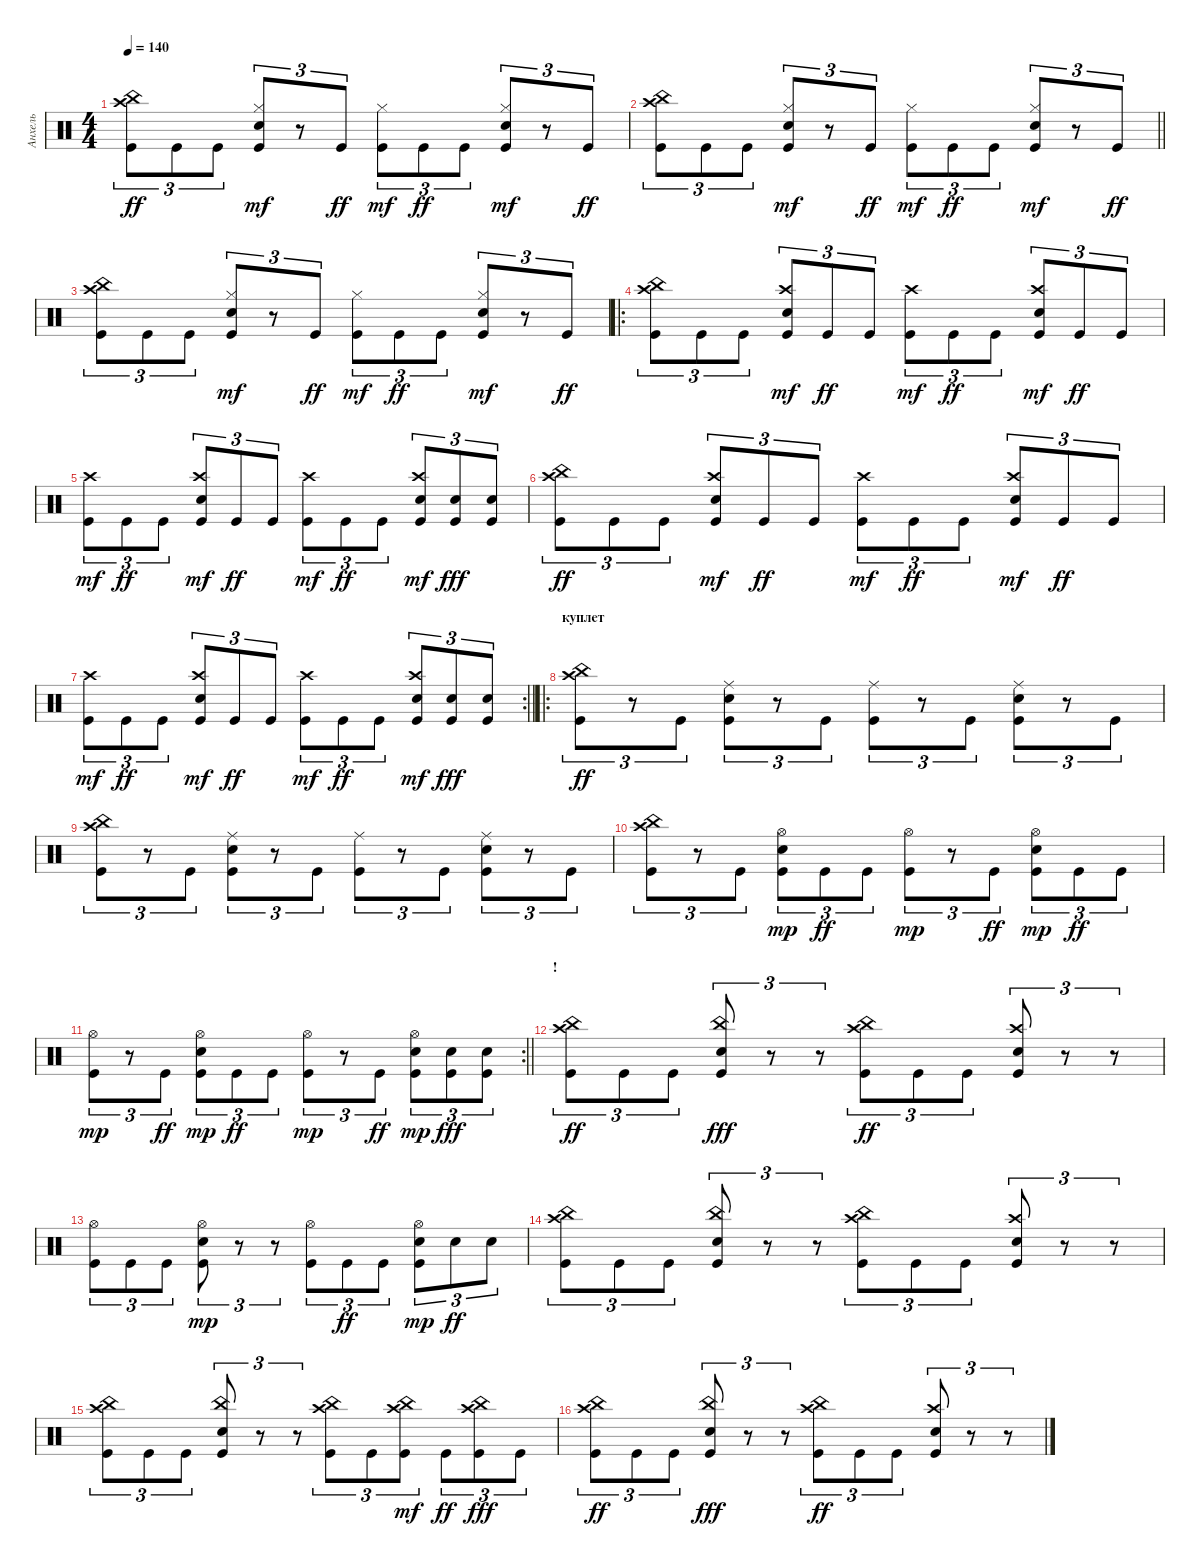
\track ("Анхель" "Анхель") {instrument percussion}
\staff {score}
\articulation defaults
\ts (4 4)
\tempo 140
\clef neutral
\ks c
("Kick (hit)" "China (hit)" "Crash high (hit)").8{tu (3 2) dy ff} "Kick (hit)".8{tu (3 2)} "Kick (hit)".8{tu (3 2)} ("Hi-Hat (closed)" "Snare (hit) 2" "Kick (hit)").8{tu (3 2) dy mf} r.8{tu (3 2)} "Kick (hit)".8{tu (3 2) dy ff} ("Kick (hit)" "Hi-Hat (closed)").8{tu (3 2) dy mf} "Kick (hit)".8{tu (3 2) dy ff} "Kick (hit)".8{tu (3 2)} ("Kick (hit)" "Snare (hit) 2" "Hi-Hat (closed)").8{tu (3 2) dy mf} r.8{tu (3 2)} "Kick (hit)".8{tu (3 2) dy ff} |
\barLineRight lightlight
("Kick (hit)" "China (hit)" "Crash high (hit)").8{tu (3 2)} "Kick (hit)".8{tu (3 2)} "Kick (hit)".8{tu (3 2)} ("Hi-Hat (closed)" "Snare (hit) 2" "Kick (hit)").8{tu (3 2) dy mf} r.8{tu (3 2)} "Kick (hit)".8{tu (3 2) dy ff} ("Kick (hit)" "Hi-Hat (closed)").8{tu (3 2) dy mf} "Kick (hit)".8{tu (3 2) dy ff} "Kick (hit)".8{tu (3 2)} ("Kick (hit)" "Snare (hit) 2" "Hi-Hat (closed)").8{tu (3 2) dy mf} r.8{tu (3 2)} "Kick (hit)".8{tu (3 2) dy ff} |
("Kick (hit)" "China (hit)" "Crash high (hit)").8{tu (3 2)} "Kick (hit)".8{tu (3 2)} "Kick (hit)".8{tu (3 2)} ("Hi-Hat (closed)" "Snare (hit) 2" "Kick (hit)").8{tu (3 2) dy mf} r.8{tu (3 2)} "Kick (hit)".8{tu (3 2) dy ff} ("Kick (hit)" "Hi-Hat (closed)").8{tu (3 2) dy mf} "Kick (hit)".8{tu (3 2) dy ff} "Kick (hit)".8{tu (3 2)} ("Kick (hit)" "Snare (hit) 2" "Hi-Hat (closed)").8{tu (3 2) dy mf} r.8{tu (3 2)} "Kick (hit)".8{tu (3 2) dy ff} |
\ro
("Kick (hit)" "China (hit)" "Crash high (hit)").8{tu (3 2)} "Kick (hit)".8{tu (3 2)} "Kick (hit)".8{tu (3 2)} ("Kick (hit)" "Snare (hit) 2" "Crash high (hit)").8{tu (3 2) dy mf} "Kick (hit)".8{tu (3 2) dy ff} "Kick (hit)".8{tu (3 2)} ("Kick (hit)" "Crash high (hit)").8{tu (3 2) dy mf} "Kick (hit)".8{tu (3 2) dy ff} "Kick (hit)".8{tu (3 2)} ("Kick (hit)" "Snare (hit) 2" "Crash high (hit)").8{tu (3 2) dy mf} "Kick (hit)".8{tu (3 2) dy ff} "Kick (hit)".8{tu (3 2)} |
("Kick (hit)" "Crash high (hit)").8{tu (3 2) dy mf} "Kick (hit)".8{tu (3 2) dy ff} "Kick (hit)".8{tu (3 2)} ("Kick (hit)" "Snare (hit) 2" "Crash high (hit)").8{tu (3 2) dy mf} "Kick (hit)".8{tu (3 2) dy ff} "Kick (hit)".8{tu (3 2)} ("Kick (hit)" "Crash high (hit)").8{tu (3 2) dy mf} "Kick (hit)".8{tu (3 2) dy ff} "Kick (hit)".8{tu (3 2)} ("Kick (hit)" "Snare (hit) 2" "Crash high (hit)").8{tu (3 2) dy mf} ("Kick (hit)" "Snare (hit) 2").8{tu (3 2) dy fff} ("Kick (hit)" "Snare (hit) 2").8{tu (3 2)} |
("Kick (hit)" "China (hit)" "Crash high (hit)").8{tu (3 2) dy ff} "Kick (hit)".8{tu (3 2)} "Kick (hit)".8{tu (3 2)} ("Kick (hit)" "Snare (hit) 2" "Crash high (hit)").8{tu (3 2) dy mf} "Kick (hit)".8{tu (3 2) dy ff} "Kick (hit)".8{tu (3 2)} ("Kick (hit)" "Crash high (hit)").8{tu (3 2) dy mf} "Kick (hit)".8{tu (3 2) dy ff} "Kick (hit)".8{tu (3 2)} ("Kick (hit)" "Snare (hit) 2" "Crash high (hit)").8{tu (3 2) dy mf} "Kick (hit)".8{tu (3 2) dy ff} "Kick (hit)".8{tu (3 2)} |
\rc 2
\barLineRight lightlight
("Kick (hit)" "Crash high (hit)").8{tu (3 2) dy mf} "Kick (hit)".8{tu (3 2) dy ff} "Kick (hit)".8{tu (3 2)} ("Kick (hit)" "Snare (hit) 2" "Crash high (hit)").8{tu (3 2) dy mf} "Kick (hit)".8{tu (3 2) dy ff} "Kick (hit)".8{tu (3 2)} ("Kick (hit)" "Crash high (hit)").8{tu (3 2) dy mf} "Kick (hit)".8{tu (3 2) dy ff} "Kick (hit)".8{tu (3 2)} ("Kick (hit)" "Snare (hit) 2" "Crash high (hit)").8{tu (3 2) dy mf} ("Kick (hit)" "Snare (hit) 2").8{tu (3 2) dy fff} ("Kick (hit)" "Snare (hit) 2").8{tu (3 2)} |
\ro
\section ("" "куплет")
("Kick (hit)" "China (hit)" "Crash high (hit)").8{tu (3 2) dy ff} r.8{tu (3 2)} "Kick (hit)".8{tu (3 2)} ("Kick (hit)" "Snare (hit) 2" "Ride (middle)").8{tu (3 2)} r.8{tu (3 2)} "Kick (hit)".8{tu (3 2)} ("Kick (hit)" "Ride (middle)").8{tu (3 2)} r.8{tu (3 2)} "Kick (hit)".8{tu (3 2)} ("Kick (hit)" "Snare (hit) 2" "Ride (middle)").8{tu (3 2)} r.8{tu (3 2)} "Kick (hit)".8{tu (3 2)} |
("Kick (hit)" "China (hit)" "Crash high (hit)").8{tu (3 2)} r.8{tu (3 2)} "Kick (hit)".8{tu (3 2)} ("Kick (hit)" "Snare (hit) 2" "Ride (middle)").8{tu (3 2)} r.8{tu (3 2)} "Kick (hit)".8{tu (3 2)} ("Kick (hit)" "Ride (middle)").8{tu (3 2)} r.8{tu (3 2)} "Kick (hit)".8{tu (3 2)} ("Kick (hit)" "Snare (hit) 2" "Ride (middle)").8{tu (3 2)} r.8{tu (3 2)} "Kick (hit)".8{tu (3 2)} |
("Kick (hit)" "China (hit)" "Crash high (hit)").8{tu (3 2)} r.8{tu (3 2)} "Kick (hit)".8{tu (3 2)} ("Kick (hit)" "Snare (hit) 2" "Hi-Hat (open)").8{tu (3 2) dy mp} "Kick (hit)".8{tu (3 2) dy ff} "Kick (hit)".8{tu (3 2)} ("Kick (hit)" "Hi-Hat (open)").8{tu (3 2) dy mp} r.8{tu (3 2)} "Kick (hit)".8{tu (3 2) dy ff} ("Kick (hit)" "Snare (hit) 2" "Hi-Hat (open)").8{tu (3 2) dy mp} "Kick (hit)".8{tu (3 2) dy ff} "Kick (hit)".8{tu (3 2)} |
\rc 2
\barLineRight lightlight
("Kick (hit)" "Hi-Hat (open)").8{tu (3 2) dy mp} r.8{tu (3 2)} "Kick (hit)".8{tu (3 2) dy ff} ("Kick (hit)" "Snare (hit) 2" "Hi-Hat (open)").8{tu (3 2) dy mp} "Kick (hit)".8{tu (3 2) dy ff} "Kick (hit)".8{tu (3 2)} ("Kick (hit)" "Hi-Hat (open)").8{tu (3 2) dy mp} r.8{tu (3 2)} "Kick (hit)".8{tu (3 2) dy ff} ("Kick (hit)" "Snare (hit) 2" "Hi-Hat (open)").8{tu (3 2) dy mp} ("Kick (hit)" "Snare (hit) 2").8{tu (3 2) dy fff} ("Kick (hit)" "Snare (hit) 2").8{tu (3 2)} |
\section ("" "!")
("Kick (hit)" "China (hit)" "Crash high (hit)").8{tu (3 2) dy ff} "Kick (hit)".8{tu (3 2)} "Kick (hit)".8{tu (3 2)} ("Kick (hit)" "Snare (hit) 2" "China (hit)").8{tu (3 2) dy fff} r.8{tu (3 2)} r.8{tu (3 2)} ("Kick (hit)" "China (hit)" "Crash high (hit)").8{tu (3 2) dy ff} "Kick (hit)".8{tu (3 2)} "Kick (hit)".8{tu (3 2)} ("Kick (hit)" "Snare (hit) 2" "Crash high (hit)").8{tu (3 2)} r.8{tu (3 2)} r.8{tu (3 2)} |
("Kick (hit)" "Hi-Hat (open)").8{tu (3 2)} "Kick (hit)".8{tu (3 2)} "Kick (hit)".8{tu (3 2)} ("Kick (hit)" "Snare (hit) 2" "Hi-Hat (open)").8{tu (3 2) dy mp} r.8{tu (3 2)} r.8{tu (3 2)} ("Kick (hit)" "Hi-Hat (open)").8{tu (3 2)} "Kick (hit)".8{tu (3 2) dy ff} "Kick (hit)".8{tu (3 2)} ("Kick (hit)" "Snare (hit) 2" "Hi-Hat (open)").8{tu (3 2) dy mp} "Snare (hit) 2".8{tu (3 2) dy ff} "Snare (hit) 2".8{tu (3 2)} |
("Kick (hit)" "China (hit)" "Crash high (hit)").8{tu (3 2)} "Kick (hit)".8{tu (3 2)} "Kick (hit)".8{tu (3 2)} ("Kick (hit)" "Snare (hit) 2" "China (hit)").8{tu (3 2)} r.8{tu (3 2)} r.8{tu (3 2)} ("Kick (hit)" "China (hit)" "Crash high (hit)").8{tu (3 2)} "Kick (hit)".8{tu (3 2)} "Kick (hit)".8{tu (3 2)} ("Kick (hit)" "Snare (hit) 2" "Crash high (hit)").8{tu (3 2)} r.8{tu (3 2)} r.8{tu (3 2)} |
("Kick (hit)" "China (hit)" "Crash high (hit)").8{tu (3 2)} "Kick (hit)".8{tu (3 2)} "Kick (hit)".8{tu (3 2)} ("Kick (hit)" "Snare (hit) 2" "China (hit)").8{tu (3 2)} r.8{tu (3 2)} r.8{tu (3 2)} ("Kick (hit)" "China (hit)" "Crash high (hit)").8{tu (3 2)} "Kick (hit)".8{tu (3 2)} ("Kick (hit)" "Crash high (hit)" "China (hit)").8{tu (3 2) dy mf} "Kick (hit)".8{tu (3 2) dy ff} ("Kick (hit)" "China (hit)" "Crash high (hit)").8{tu (3 2) dy fff} "Kick (hit)".8{tu (3 2)} |
("Kick (hit)" "China (hit)" "Crash high (hit)").8{tu (3 2) dy ff} "Kick (hit)".8{tu (3 2)} "Kick (hit)".8{tu (3 2)} ("Kick (hit)" "Snare (hit) 2" "China (hit)").8{tu (3 2) dy fff} r.8{tu (3 2)} r.8{tu (3 2)} ("Kick (hit)" "China (hit)" "Crash high (hit)").8{tu (3 2) dy ff} "Kick (hit)".8{tu (3 2)} "Kick (hit)".8{tu (3 2)} ("Kick (hit)" "Snare (hit) 2" "Crash high (hit)").8{tu (3 2)} r.8{tu (3 2)} r.8{tu (3 2)}
